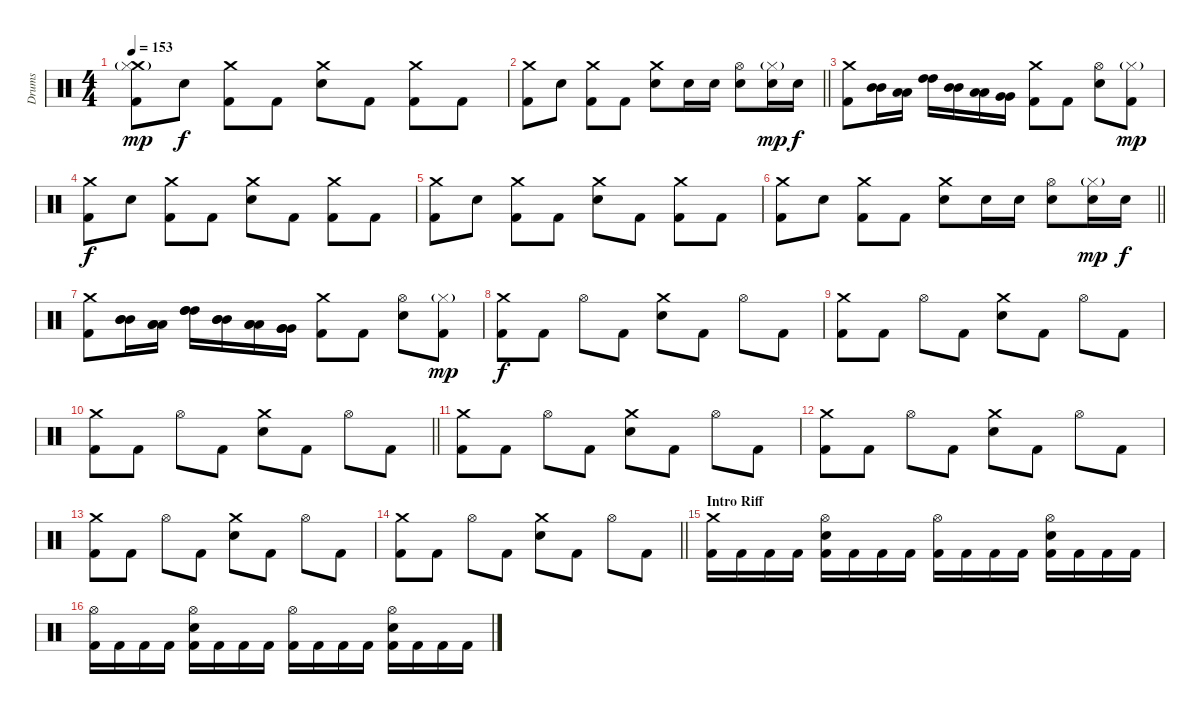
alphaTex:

\track ("Drums" "Drums") {instrument percussion}
\staff {score}
\articulation defaults
\ts (4 4)
\tempo 153
\clef neutral
\ks c
("Crash medium (hit)" "Hi-Hat (closed)"{g} "Kick (hit) 2").8{dy mp} "Electric Snare (hit)".8{dy f} ("Crash medium (hit)" "Kick (hit) 2").8 "Kick (hit) 2".8 ("Crash medium (hit)" "Electric Snare (hit)").8 "Kick (hit) 2".8 ("Crash medium (hit)" "Kick (hit) 2").8 "Kick (hit) 2".8 |
\barLineRight lightlight
("Crash medium (hit)" "Kick (hit) 2").8 "Electric Snare (hit)".8 ("Crash medium (hit)" "Kick (hit) 2").8 "Kick (hit) 2".8 ("Crash medium (hit)" "Electric Snare (hit)").8 "Electric Snare (hit)".16 "Electric Snare (hit)".16 ("Hi-Hat (open)" "Electric Snare (hit)").8 ("Hi-Hat (closed)"{g} "Electric Snare (hit)").16{dy mp} "Electric Snare (hit)".16{dy f} |
("Crash medium (hit)" "Kick (hit) 2").8 ("Mid Tom (hit)" "Mid Tom (hit)").16 ("Low Tom (hit)" "Low Tom (hit)").16 ("High Tom (hit)" "High Tom (hit)").16 ("Mid Tom (hit)" "Mid Tom (hit)").16 ("Low Tom (hit)" "Low Tom (hit)").16 ("Very Low Tom (hit)" "Very Low Tom (hit)").16 ("Crash medium (hit)" "Kick (hit) 2").8 "Kick (hit) 2".8 ("Hi-Hat (open)" "Electric Snare (hit)").8 ("Hi-Hat (closed)"{g} "Kick (hit) 2").8{dy mp} |
("Crash medium (hit)" "Kick (hit) 2").8{dy f} "Electric Snare (hit)".8 ("Crash medium (hit)" "Kick (hit) 2").8 "Kick (hit) 2".8 ("Crash medium (hit)" "Electric Snare (hit)").8 "Kick (hit) 2".8 ("Crash medium (hit)" "Kick (hit) 2").8 "Kick (hit) 2".8 |
("Crash medium (hit)" "Kick (hit) 2").8 "Electric Snare (hit)".8 ("Crash medium (hit)" "Kick (hit) 2").8 "Kick (hit) 2".8 ("Crash medium (hit)" "Electric Snare (hit)").8 "Kick (hit) 2".8 ("Crash medium (hit)" "Kick (hit) 2").8 "Kick (hit) 2".8 |
\barLineRight lightlight
("Crash medium (hit)" "Kick (hit) 2").8 "Electric Snare (hit)".8 ("Crash medium (hit)" "Kick (hit) 2").8 "Kick (hit) 2".8 ("Crash medium (hit)" "Electric Snare (hit)").8 "Electric Snare (hit)".16 "Electric Snare (hit)".16 ("Hi-Hat (open)" "Electric Snare (hit)").8 ("Hi-Hat (closed)"{g} "Electric Snare (hit)").16{dy mp} "Electric Snare (hit)".16{dy f} |
("Crash medium (hit)" "Kick (hit) 2").8 ("Mid Tom (hit)" "Mid Tom (hit)" "Mid Tom (hit)").16 ("Low Tom (hit)" "Low Tom (hit)" "Low Tom (hit)").16 ("High Tom (hit)" "High Tom (hit)" "High Tom (hit)").16 ("Mid Tom (hit)" "Mid Tom (hit)" "Mid Tom (hit)").16 ("Low Tom (hit)" "Low Tom (hit)" "Low Tom (hit)").16 ("Very Low Tom (hit)" "Very Low Tom (hit)" "Very Low Tom (hit)").16 ("Crash medium (hit)" "Kick (hit) 2").8 "Kick (hit) 2".8 ("Hi-Hat (open)" "Electric Snare (hit)").8 ("Hi-Hat (closed)"{g} "Kick (hit) 2").8{dy mp} |
("Crash medium (hit)" "Kick (hit) 2").8{dy f} "Kick (hit) 2".8 "Hi-Hat (open)".8 "Kick (hit) 2".8 ("Crash medium (hit)" "Electric Snare (hit)").8 "Kick (hit) 2".8 "Hi-Hat (open)".8 "Kick (hit) 2".8 |
("Crash medium (hit)" "Kick (hit) 2").8 "Kick (hit) 2".8 "Hi-Hat (open)".8 "Kick (hit) 2".8 ("Crash medium (hit)" "Electric Snare (hit)").8 "Kick (hit) 2".8 "Hi-Hat (open)".8 "Kick (hit) 2".8 |
\barLineRight lightlight
("Crash medium (hit)" "Kick (hit) 2").8 "Kick (hit) 2".8 "Hi-Hat (open)".8 "Kick (hit) 2".8 ("Crash medium (hit)" "Electric Snare (hit)").8 "Kick (hit) 2".8 "Hi-Hat (open)".8 "Kick (hit) 2".8 |
("Crash medium (hit)" "Kick (hit) 2").8 "Kick (hit) 2".8 "Hi-Hat (open)".8 "Kick (hit) 2".8 ("Crash medium (hit)" "Electric Snare (hit)").8 "Kick (hit) 2".8 "Hi-Hat (open)".8 "Kick (hit) 2".8 |
("Crash medium (hit)" "Kick (hit) 2").8 "Kick (hit) 2".8 "Hi-Hat (open)".8 "Kick (hit) 2".8 ("Crash medium (hit)" "Electric Snare (hit)").8 "Kick (hit) 2".8 "Hi-Hat (open)".8 "Kick (hit) 2".8 |
("Crash medium (hit)" "Kick (hit) 2").8 "Kick (hit) 2".8 "Hi-Hat (open)".8 "Kick (hit) 2".8 ("Crash medium (hit)" "Electric Snare (hit)").8 "Kick (hit) 2".8 "Hi-Hat (open)".8 "Kick (hit) 2".8 |
\barLineRight lightlight
("Crash medium (hit)" "Kick (hit) 2").8 "Kick (hit) 2".8 "Hi-Hat (open)".8 "Kick (hit) 2".8 ("Crash medium (hit)" "Electric Snare (hit)").8 "Kick (hit) 2".8 "Hi-Hat (open)".8 "Kick (hit) 2".8 |
\section ("" "Intro Riff")
("Crash medium (hit)" "Kick (hit) 2").16 "Kick (hit) 2".16 "Kick (hit) 2".16 "Kick (hit) 2".16 ("Hi-Hat (open)" "Electric Snare (hit)" "Kick (hit) 2").16 "Kick (hit) 2".16 "Kick (hit) 2".16 "Kick (hit) 2".16 ("Hi-Hat (open)" "Kick (hit) 2").16 "Kick (hit) 2".16 "Kick (hit) 2".16 "Kick (hit) 2".16 ("Hi-Hat (open)" "Electric Snare (hit)" "Kick (hit) 2").16 "Kick (hit) 2".16 "Kick (hit) 2".16 "Kick (hit) 2".16 |
("Hi-Hat (open)" "Kick (hit) 2").16 "Kick (hit) 2".16 "Kick (hit) 2".16 "Kick (hit) 2".16 ("Hi-Hat (open)" "Electric Snare (hit)" "Kick (hit) 2").16 "Kick (hit) 2".16 "Kick (hit) 2".16 "Kick (hit) 2".16 ("Hi-Hat (open)" "Kick (hit) 2").16 "Kick (hit) 2".16 "Kick (hit) 2".16 "Kick (hit) 2".16 ("Hi-Hat (open)" "Electric Snare (hit)" "Kick (hit) 2").16 "Kick (hit) 2".16 "Kick (hit) 2".16 "Kick (hit) 2".16
